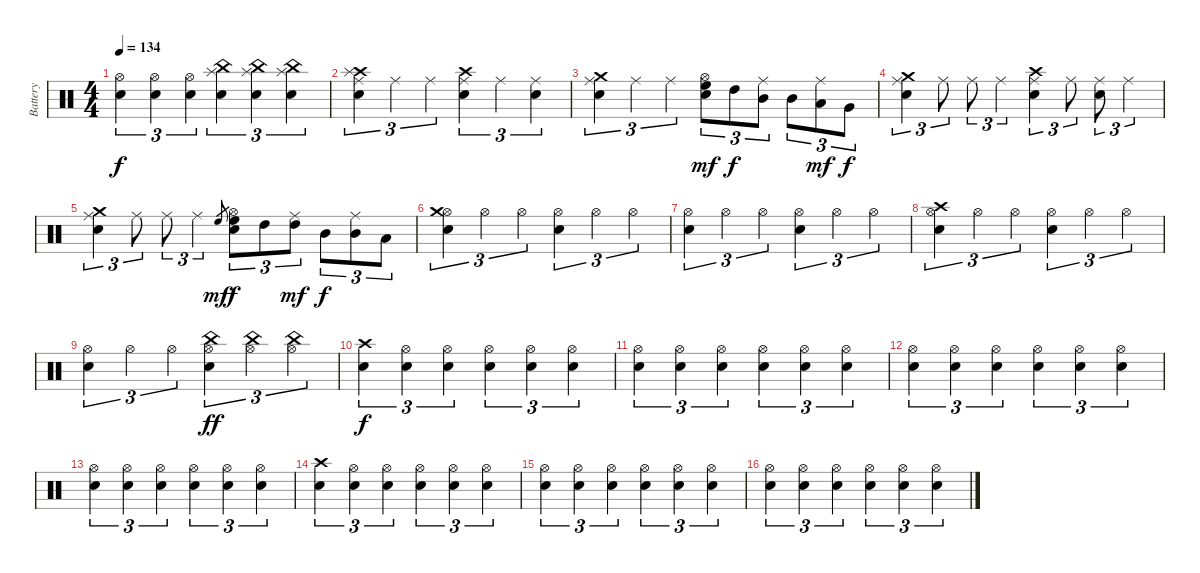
\track ("Battery" "Battery") {instrument percussion}
\staff {score}
\articulation defaults
\ts (4 4)
\tempo 134
\clef neutral
\ks c
("Electric Snare (hit)" "Hi-Hat (open)").4{tu (3 2) dy f} ("Electric Snare (hit)" "Hi-Hat (open)").4{tu (3 2)} ("Electric Snare (hit)" "Hi-Hat (open)").4{tu (3 2)} ("Electric Snare (hit)" "China (hit)" "Splash (hit)").4{tu (3 2)} ("Electric Snare (hit)" "China (hit)" "Splash (hit)").4{tu (3 2)} ("Electric Snare (hit)" "China (hit)" "Splash (hit)").4{tu (3 2)} |
("Crash high (hit)" "Ride (middle)" "Electric Snare (hit)" "Splash (hit)").4{tu (3 2)} "Ride (middle)".4{tu (3 2)} "Ride (middle)".4{tu (3 2)} ("Ride (middle)" "Electric Snare (hit)" "Crash high (hit)").4{tu (3 2)} "Ride (middle)".4{tu (3 2)} ("Ride (middle)" "Electric Snare (hit)").4{tu (3 2)} |
("Ride (middle)" "Electric Snare (hit)" "Crash medium (hit)").4{tu (3 2)} "Ride (middle)".4{tu (3 2)} "Ride (middle)".4{tu (3 2)} ("Hi-Hat (open)" "Electric Snare (hit)" "High Floor Tom (hit)").8{tu (3 2) dy mf} "High Tom (hit)".8{tu (3 2) dy f} ("Ride (middle)" "Mid Tom (hit)").8{tu (3 2)} "Mid Tom (hit)".8{tu (3 2)} ("Ride (middle)" "Low Tom (hit)").8{tu (3 2) dy mf} "Very Low Tom (hit)".8{tu (3 2) dy f} |
("Ride (middle)" "Electric Snare (hit)" "Crash medium (hit)").4{tu (3 2)} "Ride (middle)".8{tu (3 2)} "Ride (middle)".8{tu (3 2)} "Ride (middle)".4{tu (3 2)} ("Ride (middle)" "Electric Snare (hit)" "Crash high (hit)").4{tu (3 2)} "Ride (middle)".8{tu (3 2)} ("Ride (middle)" "Electric Snare (hit)").8{tu (3 2)} "Ride (middle)".4{tu (3 2)} |
("Ride (middle)" "Electric Snare (hit)" "Crash medium (hit)").4{tu (3 2)} "Ride (middle)".8{tu (3 2)} "Ride (middle)".8{tu (3 2)} "Ride (middle)".4{tu (3 2)} "High Floor Tom (hit)".8{gr dy mf} ("Hi-Hat (open)" "Electric Snare (hit)" "High Floor Tom (hit)").8{tu (3 2) dy f} "High Tom (hit)".8{tu (3 2)} ("Ride (middle)" "High Tom (hit)").8{tu (3 2) dy mf} "Mid Tom (hit)".8{tu (3 2) dy f} ("Ride (middle)" "Mid Tom (hit)").8{tu (3 2)} "Low Tom (hit)".8{tu (3 2)} |
("Hi-Hat (open)" "Electric Snare (hit)" "Crash medium (hit)").4{tu (3 2)} "Hi-Hat (open)".4{tu (3 2)} "Hi-Hat (open)".4{tu (3 2)} ("Hi-Hat (open)" "Electric Snare (hit)").4{tu (3 2)} "Hi-Hat (open)".4{tu (3 2)} "Hi-Hat (open)".4{tu (3 2)} |
("Hi-Hat (open)" "Electric Snare (hit)").4{tu (3 2)} "Hi-Hat (open)".4{tu (3 2)} "Hi-Hat (open)".4{tu (3 2)} ("Hi-Hat (open)" "Electric Snare (hit)").4{tu (3 2)} "Hi-Hat (open)".4{tu (3 2)} "Hi-Hat (open)".4{tu (3 2)} |
("Hi-Hat (open)" "Crash high (hit)" "Electric Snare (hit)").4{tu (3 2)} "Hi-Hat (open)".4{tu (3 2)} "Hi-Hat (open)".4{tu (3 2)} ("Hi-Hat (open)" "Electric Snare (hit)").4{tu (3 2)} "Hi-Hat (open)".4{tu (3 2)} "Hi-Hat (open)".4{tu (3 2)} |
("Hi-Hat (open)" "Electric Snare (hit)").4{tu (3 2)} "Hi-Hat (open)".4{tu (3 2)} "Hi-Hat (open)".4{tu (3 2)} ("Hi-Hat (open)" "China (hit)" "Electric Snare (hit)").4{tu (3 2) dy ff} ("Hi-Hat (open)" "China (hit)").4{tu (3 2)} ("Hi-Hat (open)" "China (hit)").4{tu (3 2)} |
("Electric Snare (hit)" "Crash high (hit)").4{tu (3 2) dy f} ("Electric Snare (hit)" "Hi-Hat (open)").4{tu (3 2)} ("Electric Snare (hit)" "Hi-Hat (open)").4{tu (3 2)} ("Electric Snare (hit)" "Hi-Hat (open)").4{tu (3 2)} ("Electric Snare (hit)" "Hi-Hat (open)").4{tu (3 2)} ("Electric Snare (hit)" "Hi-Hat (open)").4{tu (3 2)} |
("Electric Snare (hit)" "Hi-Hat (open)").4{tu (3 2)} ("Electric Snare (hit)" "Hi-Hat (open)").4{tu (3 2)} ("Electric Snare (hit)" "Hi-Hat (open)").4{tu (3 2)} ("Electric Snare (hit)" "Hi-Hat (open)").4{tu (3 2)} ("Electric Snare (hit)" "Hi-Hat (open)").4{tu (3 2)} ("Electric Snare (hit)" "Hi-Hat (open)").4{tu (3 2)} |
("Electric Snare (hit)" "Hi-Hat (open)").4{tu (3 2)} ("Electric Snare (hit)" "Hi-Hat (open)").4{tu (3 2)} ("Electric Snare (hit)" "Hi-Hat (open)").4{tu (3 2)} ("Electric Snare (hit)" "Hi-Hat (open)").4{tu (3 2)} ("Electric Snare (hit)" "Hi-Hat (open)").4{tu (3 2)} ("Electric Snare (hit)" "Hi-Hat (open)").4{tu (3 2)} |
("Electric Snare (hit)" "Hi-Hat (open)").4{tu (3 2)} ("Electric Snare (hit)" "Hi-Hat (open)").4{tu (3 2)} ("Electric Snare (hit)" "Hi-Hat (open)").4{tu (3 2)} ("Electric Snare (hit)" "Hi-Hat (open)").4{tu (3 2)} ("Electric Snare (hit)" "Hi-Hat (open)").4{tu (3 2)} ("Electric Snare (hit)" "Hi-Hat (open)").4{tu (3 2)} |
("Electric Snare (hit)" "Crash high (hit)").4{tu (3 2)} ("Electric Snare (hit)" "Hi-Hat (open)").4{tu (3 2)} ("Electric Snare (hit)" "Hi-Hat (open)").4{tu (3 2)} ("Electric Snare (hit)" "Hi-Hat (open)").4{tu (3 2)} ("Electric Snare (hit)" "Hi-Hat (open)").4{tu (3 2)} ("Electric Snare (hit)" "Hi-Hat (open)").4{tu (3 2)} |
("Electric Snare (hit)" "Hi-Hat (open)").4{tu (3 2)} ("Electric Snare (hit)" "Hi-Hat (open)").4{tu (3 2)} ("Electric Snare (hit)" "Hi-Hat (open)").4{tu (3 2)} ("Electric Snare (hit)" "Hi-Hat (open)").4{tu (3 2)} ("Electric Snare (hit)" "Hi-Hat (open)").4{tu (3 2)} ("Electric Snare (hit)" "Hi-Hat (open)").4{tu (3 2)} |
("Electric Snare (hit)" "Hi-Hat (open)").4{tu (3 2)} ("Electric Snare (hit)" "Hi-Hat (open)").4{tu (3 2)} ("Electric Snare (hit)" "Hi-Hat (open)").4{tu (3 2)} ("Electric Snare (hit)" "Hi-Hat (open)").4{tu (3 2)} ("Electric Snare (hit)" "Hi-Hat (open)").4{tu (3 2)} ("Electric Snare (hit)" "Hi-Hat (open)").4{tu (3 2)}
